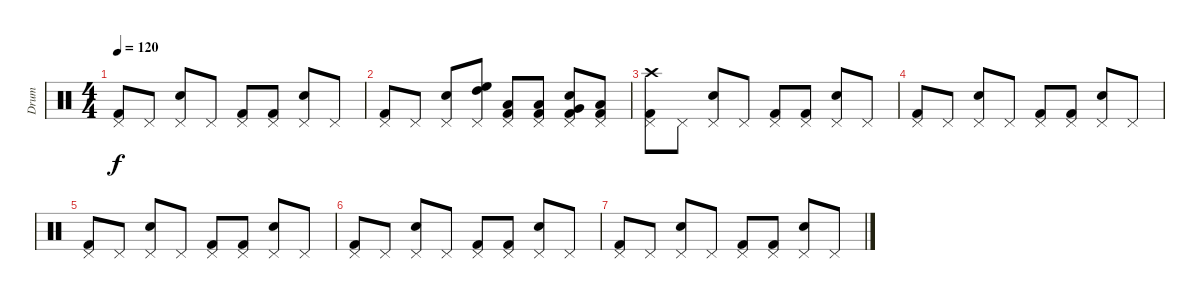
\track ("Drum" "Drum") {instrument percussion}
\staff {score}
\articulation defaults
\ts (4 4)
\tempo 120
\clef neutral
\ks c
("Pedal Hi-Hat (hit)" "Kick (hit) 2").8{dy f} "Pedal Hi-Hat (hit)".8 ("Snare (hit) 2" "Pedal Hi-Hat (hit)").8 "Pedal Hi-Hat (hit)".8 ("Pedal Hi-Hat (hit)" "Kick (hit) 2").8 ("Pedal Hi-Hat (hit)" "Kick (hit) 2").8 ("Snare (hit) 2" "Pedal Hi-Hat (hit)").8 "Pedal Hi-Hat (hit)".8 |
("Pedal Hi-Hat (hit)" "Kick (hit) 2").8 "Pedal Hi-Hat (hit)".8 ("Snare (hit) 2" "Pedal Hi-Hat (hit)").8 ("High Floor Tom (hit)" "High Tom (hit)" "Pedal Hi-Hat (hit)").8 ("Low Tom (hit)" "Pedal Hi-Hat (hit)" "Kick (hit) 2").8 ("Low Tom (hit)" "Pedal Hi-Hat (hit)" "Kick (hit) 2").8 ("Snare (hit) 2" "Very Low Tom (hit)" "Pedal Hi-Hat (hit)" "Kick (hit) 2").8 ("Low Floor Tom (hit)" "Pedal Hi-Hat (hit)" "Kick (hit) 2").8 |
("Crash high (hit)" "Pedal Hi-Hat (hit)" "Kick (hit) 2").8 "Pedal Hi-Hat (hit)".8 ("Snare (hit) 2" "Pedal Hi-Hat (hit)").8 "Pedal Hi-Hat (hit)".8 ("Pedal Hi-Hat (hit)" "Kick (hit) 2").8 ("Pedal Hi-Hat (hit)" "Kick (hit) 2").8 ("Snare (hit) 2" "Pedal Hi-Hat (hit)").8 "Pedal Hi-Hat (hit)".8 |
("Pedal Hi-Hat (hit)" "Kick (hit) 2").8 "Pedal Hi-Hat (hit)".8 ("Snare (hit) 2" "Pedal Hi-Hat (hit)").8 "Pedal Hi-Hat (hit)".8 ("Pedal Hi-Hat (hit)" "Kick (hit) 2").8 ("Pedal Hi-Hat (hit)" "Kick (hit) 2").8 ("Snare (hit) 2" "Pedal Hi-Hat (hit)").8 "Pedal Hi-Hat (hit)".8 |
("Pedal Hi-Hat (hit)" "Kick (hit) 2").8{volume 7} "Pedal Hi-Hat (hit)".8 ("Snare (hit) 2" "Pedal Hi-Hat (hit)").8 "Pedal Hi-Hat (hit)".8 ("Pedal Hi-Hat (hit)" "Kick (hit) 2").8 ("Pedal Hi-Hat (hit)" "Kick (hit) 2").8 ("Snare (hit) 2" "Pedal Hi-Hat (hit)").8 "Pedal Hi-Hat (hit)".8 |
("Pedal Hi-Hat (hit)" "Kick (hit) 2").8 "Pedal Hi-Hat (hit)".8 ("Snare (hit) 2" "Pedal Hi-Hat (hit)").8 "Pedal Hi-Hat (hit)".8 ("Pedal Hi-Hat (hit)" "Kick (hit) 2").8 ("Pedal Hi-Hat (hit)" "Kick (hit) 2").8 ("Snare (hit) 2" "Pedal Hi-Hat (hit)").8 "Pedal Hi-Hat (hit)".8 |
("Pedal Hi-Hat (hit)" "Kick (hit) 2").8 "Pedal Hi-Hat (hit)".8 ("Snare (hit) 2" "Pedal Hi-Hat (hit)").8 "Pedal Hi-Hat (hit)".8 ("Pedal Hi-Hat (hit)" "Kick (hit) 2").8 ("Pedal Hi-Hat (hit)" "Kick (hit) 2").8 ("Snare (hit) 2" "Pedal Hi-Hat (hit)").8 "Pedal Hi-Hat (hit)".8
